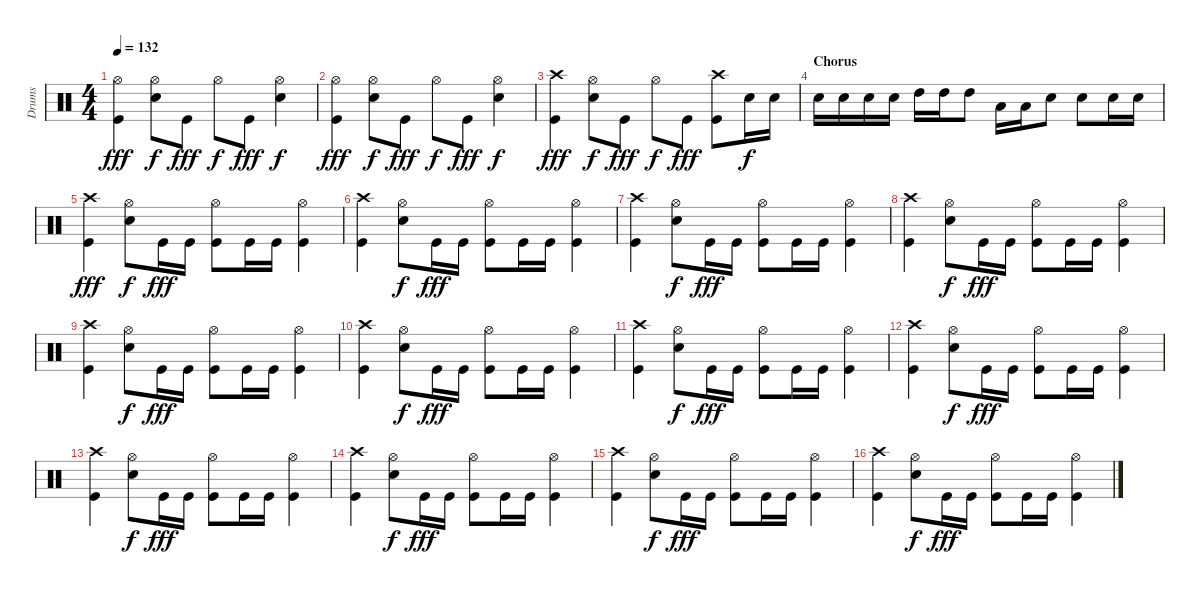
\track ("Drums" "Drums") {instrument percussion}
\staff {score}
\articulation defaults
\ts (4 4)
\tempo 132
\clef neutral
\ks c
("Hi-Hat (open)" "Kick (hit)").4{dy fff} ("Hi-Hat (open)" "Snare (hit) 2").8{dy f} "Kick (hit)".8{dy fff} "Hi-Hat (open)".8{dy f} "Kick (hit)".8{dy fff} ("Hi-Hat (open)" "Snare (hit) 2").4{dy f} |
("Hi-Hat (open)" "Kick (hit)").4{dy fff} ("Hi-Hat (open)" "Snare (hit) 2").8{dy f} "Kick (hit)".8{dy fff} "Hi-Hat (open)".8{dy f} "Kick (hit)".8{dy fff} ("Hi-Hat (open)" "Snare (hit) 2").4{dy f} |
("Crash high (hit)" "Kick (hit)").4{dy fff} ("Hi-Hat (open)" "Snare (hit) 2").8{dy f} "Kick (hit)".8{dy fff} "Hi-Hat (open)".8{dy f} "Kick (hit)".8{dy fff} ("Crash high (hit)" "Kick (hit)").8 "Snare (hit) 2".16{dy f} "Snare (hit) 2".16 |
\section ("" "Chorus")
"Snare (hit) 2".16 "Snare (hit) 2".16 "Snare (hit) 2".16 "Snare (hit) 2".16 "High Tom (hit)".16 "High Tom (hit)".16 "High Tom (hit)".8 "Low Tom (hit)".16 "Low Tom (hit)".16 "Snare (hit) 2".8 "Snare (hit) 2".8 "Snare (hit) 2".16 "Snare (hit) 2".16 |
("Crash high (hit)" "Kick (hit)").4{dy fff} ("Hi-Hat (open)" "Snare (hit) 2").8{dy f} "Kick (hit)".16{dy fff} "Kick (hit)".16 ("Hi-Hat (open)" "Kick (hit)").8 "Kick (hit)".16 "Kick (hit)".16 ("Hi-Hat (open)" "Kick (hit)").4 |
("Crash high (hit)" "Kick (hit)").4 ("Hi-Hat (open)" "Snare (hit) 2").8{dy f} "Kick (hit)".16{dy fff} "Kick (hit)".16 ("Hi-Hat (open)" "Kick (hit)").8 "Kick (hit)".16 "Kick (hit)".16 ("Hi-Hat (open)" "Kick (hit)").4 |
("Crash high (hit)" "Kick (hit)").4 ("Hi-Hat (open)" "Snare (hit) 2").8{dy f} "Kick (hit)".16{dy fff} "Kick (hit)".16 ("Hi-Hat (open)" "Kick (hit)").8 "Kick (hit)".16 "Kick (hit)".16 ("Hi-Hat (open)" "Kick (hit)").4 |
("Crash high (hit)" "Kick (hit)").4 ("Hi-Hat (open)" "Snare (hit) 2").8{dy f} "Kick (hit)".16{dy fff} "Kick (hit)".16 ("Hi-Hat (open)" "Kick (hit)").8 "Kick (hit)".16 "Kick (hit)".16 ("Hi-Hat (open)" "Kick (hit)").4 |
("Crash high (hit)" "Kick (hit)").4 ("Hi-Hat (open)" "Snare (hit) 2").8{dy f} "Kick (hit)".16{dy fff} "Kick (hit)".16 ("Hi-Hat (open)" "Kick (hit)").8 "Kick (hit)".16 "Kick (hit)".16 ("Hi-Hat (open)" "Kick (hit)").4 |
("Crash high (hit)" "Kick (hit)").4 ("Hi-Hat (open)" "Snare (hit) 2").8{dy f} "Kick (hit)".16{dy fff} "Kick (hit)".16 ("Hi-Hat (open)" "Kick (hit)").8 "Kick (hit)".16 "Kick (hit)".16 ("Hi-Hat (open)" "Kick (hit)").4 |
("Crash high (hit)" "Kick (hit)").4 ("Hi-Hat (open)" "Snare (hit) 2").8{dy f} "Kick (hit)".16{dy fff} "Kick (hit)".16 ("Hi-Hat (open)" "Kick (hit)").8 "Kick (hit)".16 "Kick (hit)".16 ("Hi-Hat (open)" "Kick (hit)").4 |
("Crash high (hit)" "Kick (hit)").4 ("Hi-Hat (open)" "Snare (hit) 2").8{dy f} "Kick (hit)".16{dy fff} "Kick (hit)".16 ("Hi-Hat (open)" "Kick (hit)").8 "Kick (hit)".16 "Kick (hit)".16 ("Hi-Hat (open)" "Kick (hit)").4 |
("Crash high (hit)" "Kick (hit)").4 ("Hi-Hat (open)" "Snare (hit) 2").8{dy f} "Kick (hit)".16{dy fff} "Kick (hit)".16 ("Hi-Hat (open)" "Kick (hit)").8 "Kick (hit)".16 "Kick (hit)".16 ("Hi-Hat (open)" "Kick (hit)").4 |
("Crash high (hit)" "Kick (hit)").4 ("Hi-Hat (open)" "Snare (hit) 2").8{dy f} "Kick (hit)".16{dy fff} "Kick (hit)".16 ("Hi-Hat (open)" "Kick (hit)").8 "Kick (hit)".16 "Kick (hit)".16 ("Hi-Hat (open)" "Kick (hit)").4 |
("Crash high (hit)" "Kick (hit)").4 ("Hi-Hat (open)" "Snare (hit) 2").8{dy f} "Kick (hit)".16{dy fff} "Kick (hit)".16 ("Hi-Hat (open)" "Kick (hit)").8 "Kick (hit)".16 "Kick (hit)".16 ("Hi-Hat (open)" "Kick (hit)").4 |
("Crash high (hit)" "Kick (hit)").4 ("Hi-Hat (open)" "Snare (hit) 2").8{dy f} "Kick (hit)".16{dy fff} "Kick (hit)".16 ("Hi-Hat (open)" "Kick (hit)").8 "Kick (hit)".16 "Kick (hit)".16 ("Hi-Hat (open)" "Kick (hit)").4
